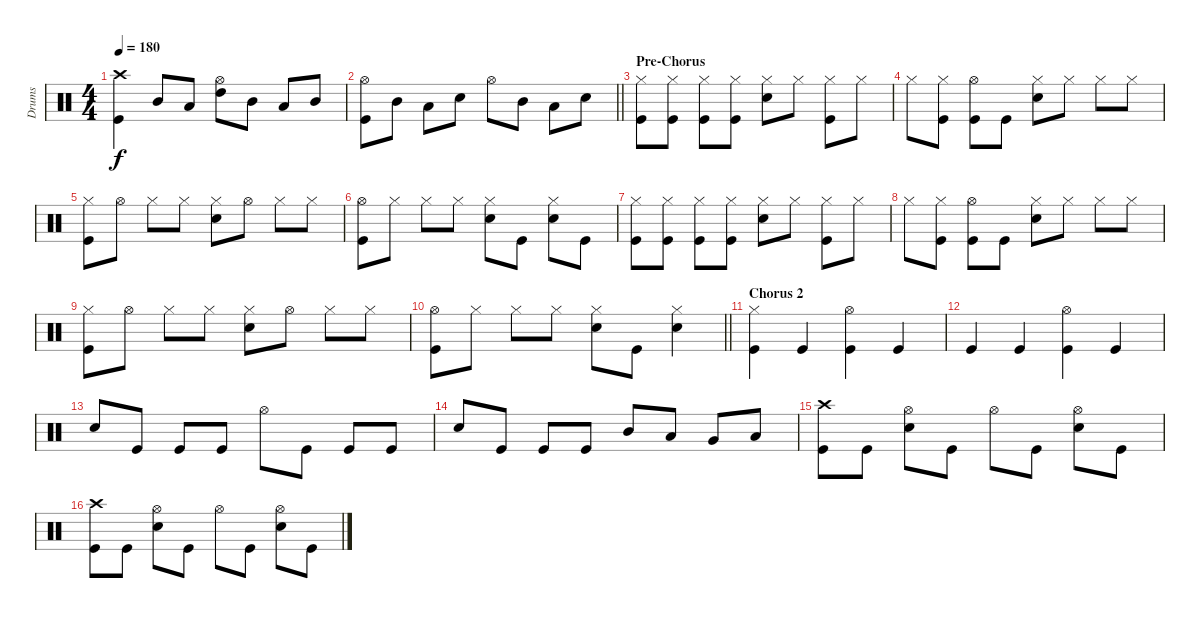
\track ("Drums" "Drums") {instrument percussion}
\staff {score}
\articulation defaults
\ts (4 4)
\tempo 180
\clef neutral
\ks c
("Crash high (hit)" "Kick (hit)").4{dy f} "Mid Tom (hit)".8 "Low Tom (hit)".8 ("Hi-Hat (open)" "High Tom (hit)").8 "Mid Tom (hit)".8 "Low Tom (hit)".8 "Mid Tom (hit)".8 |
\barLineRight lightlight
("Hi-Hat (open)" "Kick (hit)").8 "Mid Tom (hit)".8 "Low Tom (hit)".8 "Snare (hit) 2".8 "Hi-Hat (open)".8 "Mid Tom (hit)".8 "Low Tom (hit)".8 "Snare (hit) 2".8 |
\section ("" "Pre-Chorus")
("Hi-Hat (closed)" "Kick (hit)").8 ("Hi-Hat (closed)" "Kick (hit)").8 ("Hi-Hat (closed)" "Kick (hit)").8 ("Hi-Hat (closed)" "Kick (hit)").8 ("Hi-Hat (closed)" "Snare (hit) 2").8 "Hi-Hat (closed)".8 ("Hi-Hat (closed)" "Kick (hit)").8 "Hi-Hat (closed)".8 |
"Hi-Hat (closed)".8 ("Hi-Hat (closed)" "Kick (hit)").8 ("Hi-Hat (open)" "Kick (hit)").8 "Kick (hit)".8 ("Hi-Hat (closed)" "Snare (hit) 2").8 "Hi-Hat (closed)".8 "Hi-Hat (closed)".8 "Hi-Hat (closed)".8 |
("Hi-Hat (closed)" "Kick (hit)").8 "Hi-Hat (open)".8 "Hi-Hat (closed)".8 "Hi-Hat (closed)".8 ("Hi-Hat (closed)" "Snare (hit) 2").8 "Hi-Hat (open)".8 "Hi-Hat (closed)".8 "Hi-Hat (closed)".8 |
("Hi-Hat (open)" "Kick (hit)").8 "Hi-Hat (closed)".8 "Hi-Hat (closed)".8 "Hi-Hat (closed)".8 ("Hi-Hat (closed)" "Snare (hit) 2").8 "Kick (hit)".8 ("Snare (hit) 2" "Hi-Hat (closed)").8 "Kick (hit)".8 |
("Hi-Hat (closed)" "Kick (hit)").8 ("Hi-Hat (closed)" "Kick (hit)").8 ("Hi-Hat (closed)" "Kick (hit)").8 ("Hi-Hat (closed)" "Kick (hit)").8 ("Hi-Hat (closed)" "Snare (hit) 2").8 "Hi-Hat (closed)".8 ("Hi-Hat (closed)" "Kick (hit)").8 "Hi-Hat (closed)".8 |
"Hi-Hat (closed)".8 ("Hi-Hat (closed)" "Kick (hit)").8 ("Hi-Hat (open)" "Kick (hit)").8 "Kick (hit)".8 ("Hi-Hat (closed)" "Snare (hit) 2").8 "Hi-Hat (closed)".8 "Hi-Hat (closed)".8 "Hi-Hat (closed)".8 |
("Hi-Hat (closed)" "Kick (hit)").8 "Hi-Hat (open)".8 "Hi-Hat (closed)".8 "Hi-Hat (closed)".8 ("Hi-Hat (closed)" "Snare (hit) 2").8 "Hi-Hat (open)".8 "Hi-Hat (closed)".8 "Hi-Hat (closed)".8 |
\barLineRight lightlight
("Hi-Hat (open)" "Kick (hit)").8 "Hi-Hat (closed)".8 "Hi-Hat (closed)".8 "Hi-Hat (closed)".8 ("Hi-Hat (closed)" "Snare (hit) 2").8 "Kick (hit)".8 ("Snare (hit) 2" "Hi-Hat (closed)").4 |
\section ("" "Chorus 2")
("Hi-Hat (closed)" "Kick (hit)").4 "Kick (hit)".4 ("Hi-Hat (open)" "Kick (hit)").4 "Kick (hit)".4 |
"Kick (hit)".4 "Kick (hit)".4 ("Hi-Hat (open)" "Kick (hit)").4 "Kick (hit)".4 |
"Snare (hit) 2".8 "Kick (hit)".8 "Kick (hit)".8 "Kick (hit)".8 "Hi-Hat (open)".8 "Kick (hit)".8 "Kick (hit)".8 "Kick (hit)".8 |
"Snare (hit) 2".8 "Kick (hit)".8 "Kick (hit)".8 "Kick (hit)".8 "Mid Tom (hit)".8 "Low Tom (hit)".8 "Very Low Tom (hit)".8 "Low Floor Tom (hit)".8 |
("Crash high (hit)" "Kick (hit)").8 "Kick (hit)".8 ("Snare (hit) 2" "Hi-Hat (open)").8 "Kick (hit)".8 "Hi-Hat (open)".8 "Kick (hit)".8 ("Snare (hit) 2" "Hi-Hat (open)").8 "Kick (hit)".8 |
("Crash high (hit)" "Kick (hit)").8 "Kick (hit)".8 ("Snare (hit) 2" "Hi-Hat (open)").8 "Kick (hit)".8 "Hi-Hat (open)".8 "Kick (hit)".8 ("Snare (hit) 2" "Hi-Hat (open)").8 "Kick (hit)".8
